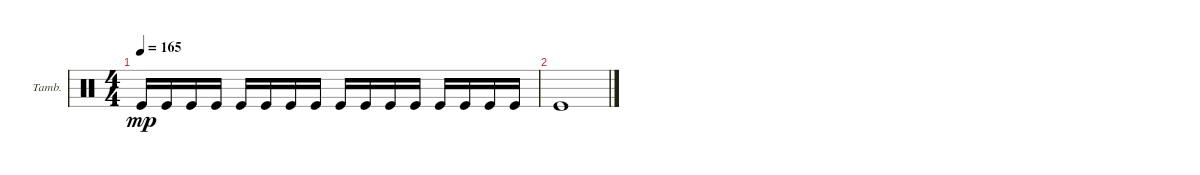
\defaultSystemsLayout 4
\bracketExtendMode groupsimilarinstruments
\firstSystemTrackNameOrientation horizontal
\otherSystemsTrackNameOrientation horizontal
\track ("Tambourine" "Tamb.") {instrument percussion}
\staff {score}
\articulation defaults
\ts (4 4)
\tempo 165
\clef neutral
\scale
0.333333
\ks c "Kick (hit)".16{dy mp} "Kick (hit)".16 "Kick (hit)".16 "Kick (hit)".16 "Kick (hit)".16 "Kick (hit)".16 "Kick (hit)".16 "Kick (hit)".16 "Kick (hit)".16 "Kick (hit)".16 "Kick (hit)".16 "Kick (hit)".16 "Kick (hit)".16 "Kick (hit)".16 "Kick (hit)".16 "Kick (hit)".16
|
\scale
0.333333 "Kick (hit)".1 |
\scale
0.333333 |
\scale
0.333333 |
\scale
0.333333 |
\scale
0.333333
